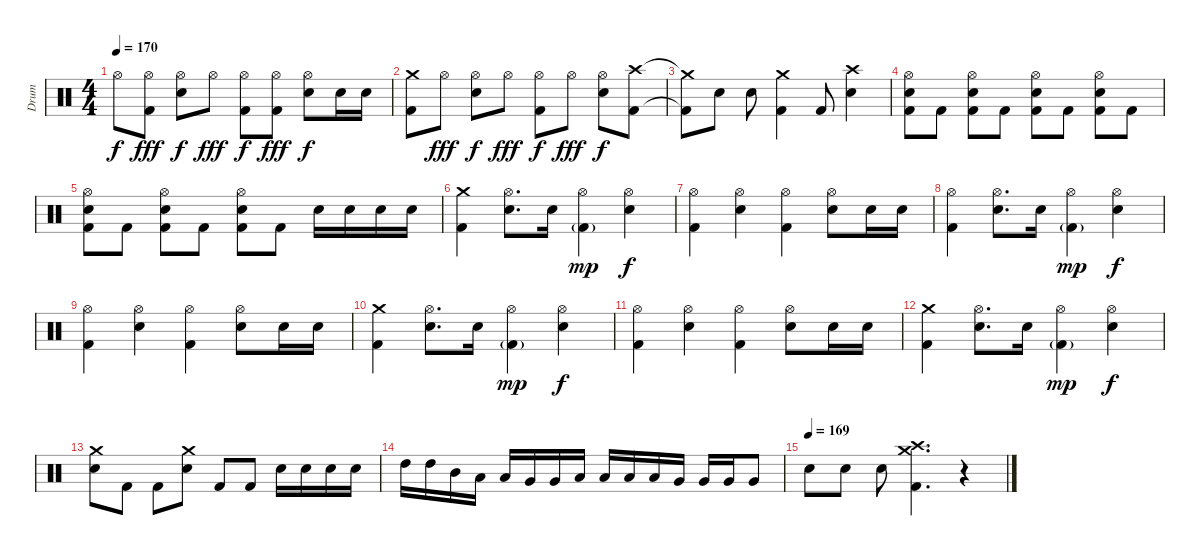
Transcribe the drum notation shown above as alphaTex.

\track ("Drum" "Drum") {instrument percussion}
\staff {score}
\articulation defaults
\ts (4 4)
\tempo 170
\clef neutral
\ks c "Hi-Hat (open)".8{dy f}
("Kick (hit) 2" "Hi-Hat (open)").8{dy fff} ("Electric Snare (hit)" "Hi-Hat (open)").8{dy f} "Hi-Hat (open)".8{dy fff} ("Kick (hit) 2" "Hi-Hat (open)").8{dy f} ("Kick (hit) 2" "Hi-Hat (open)").8{dy fff} ("Electric Snare (hit)" "Hi-Hat (open)").8{dy f} "Electric Snare (hit)".16 "Electric Snare (hit)".16 |
("Kick (hit) 2" "Crash medium (hit)").8 "Hi-Hat (open)".8{dy fff} ("Electric Snare (hit)" "Hi-Hat (open)").8{dy f} "Hi-Hat (open)".8{dy fff} ("Kick (hit) 2" "Hi-Hat (open)").8{dy f} "Hi-Hat (open)".8{dy fff} ("Electric Snare (hit)" "Hi-Hat (open)").8{dy f} ("Kick (hit) 2" "Crash high (hit)").8 |
("Kick (hit) 2"{t} "Crash medium (hit)"{t}).8 "Electric Snare (hit)".8 "Electric Snare (hit)".8 ("Kick (hit) 2" "Crash medium (hit)").4 "Kick (hit) 2".8 ("Electric Snare (hit)" "Crash high (hit)").4 |
("Kick (hit) 2" "Electric Snare (hit)" "Hi-Hat (open)").8 "Kick (hit) 2".8 ("Kick (hit) 2" "Electric Snare (hit)" "Hi-Hat (open)").8 "Kick (hit) 2".8 ("Kick (hit) 2" "Electric Snare (hit)" "Hi-Hat (open)").8 "Kick (hit) 2".8 ("Kick (hit) 2" "Electric Snare (hit)" "Hi-Hat (open)").8 "Kick (hit) 2".8 |
("Kick (hit) 2" "Electric Snare (hit)" "Hi-Hat (open)").8 "Kick (hit) 2".8 ("Kick (hit) 2" "Electric Snare (hit)" "Hi-Hat (open)").8 "Kick (hit) 2".8 ("Kick (hit) 2" "Electric Snare (hit)" "Hi-Hat (open)").8 "Kick (hit) 2".8 "Electric Snare (hit)".16 "Electric Snare (hit)".16 "Electric Snare (hit)".16 "Electric Snare (hit)".16 |
("Crash medium (hit)" "Kick (hit) 2").4 ("Hi-Hat (open)" "Electric Snare (hit)").8{d} "Electric Snare (hit)".16 ("Hi-Hat (open)" "Kick (hit) 2"{g}).4{dy mp} ("Hi-Hat (open)" "Electric Snare (hit)").4{dy f} |
("Hi-Hat (open)" "Kick (hit) 2").4 ("Hi-Hat (open)" "Electric Snare (hit)").4 ("Hi-Hat (open)" "Kick (hit) 2").4 ("Hi-Hat (open)" "Electric Snare (hit)").8 "Electric Snare (hit)".16 "Electric Snare (hit)".16 |
("Hi-Hat (open)" "Kick (hit) 2").4 ("Hi-Hat (open)" "Electric Snare (hit)").8{d} "Electric Snare (hit)".16 ("Hi-Hat (open)" "Kick (hit) 2"{g}).4{dy mp} ("Hi-Hat (open)" "Electric Snare (hit)").4{dy f} |
("Hi-Hat (open)" "Kick (hit) 2").4 ("Hi-Hat (open)" "Electric Snare (hit)").4 ("Hi-Hat (open)" "Kick (hit) 2").4 ("Hi-Hat (open)" "Electric Snare (hit)").8 "Electric Snare (hit)".16 "Electric Snare (hit)".16 |
("Crash medium (hit)" "Kick (hit) 2").4 ("Hi-Hat (open)" "Electric Snare (hit)").8{d} "Electric Snare (hit)".16 ("Hi-Hat (open)" "Kick (hit) 2"{g}).4{dy mp} ("Hi-Hat (open)" "Electric Snare (hit)").4{dy f} |
("Hi-Hat (open)" "Kick (hit) 2").4 ("Hi-Hat (open)" "Electric Snare (hit)").4 ("Hi-Hat (open)" "Kick (hit) 2").4 ("Hi-Hat (open)" "Electric Snare (hit)").8 "Electric Snare (hit)".16 "Electric Snare (hit)".16 |
("Crash medium (hit)" "Kick (hit) 2").4 ("Hi-Hat (open)" "Electric Snare (hit)").8{d} "Electric Snare (hit)".16 ("Hi-Hat (open)" "Kick (hit) 2"{g}).4{dy mp} ("Hi-Hat (open)" "Electric Snare (hit)").4{dy f} |
("Electric Snare (hit)" "Crash medium (hit)").8 "Kick (hit) 2".8 "Kick (hit) 2".8 ("Electric Snare (hit)" "Crash medium (hit)").8 "Kick (hit) 2".8 "Kick (hit) 2".8 "Electric Snare (hit)".16 "Electric Snare (hit)".16 "Electric Snare (hit)".16 "Electric Snare (hit)".16 |
"High Tom (hit)".16 "High Tom (hit)".16 "Mid Tom (hit)".16 "Low Tom (hit)".16 "Low Tom (hit)".16 "Very Low Tom (hit)".16 "Very Low Tom (hit)".16 "Low Tom (hit)".16 "Low Tom (hit)".16 "Low Tom (hit)".16 "Low Tom (hit)".16 "Very Low Tom (hit)".16 "Very Low Tom (hit)".16 "Very Low Tom (hit)".16 "Very Low Tom (hit)".8 |
\tempo (169)
"Electric Snare (hit)".8 "Electric Snare (hit)".8 "Electric Snare (hit)".8 ("Kick (hit) 2" "Crash medium (hit)" "Crash high (hit)").4{d} r.4
